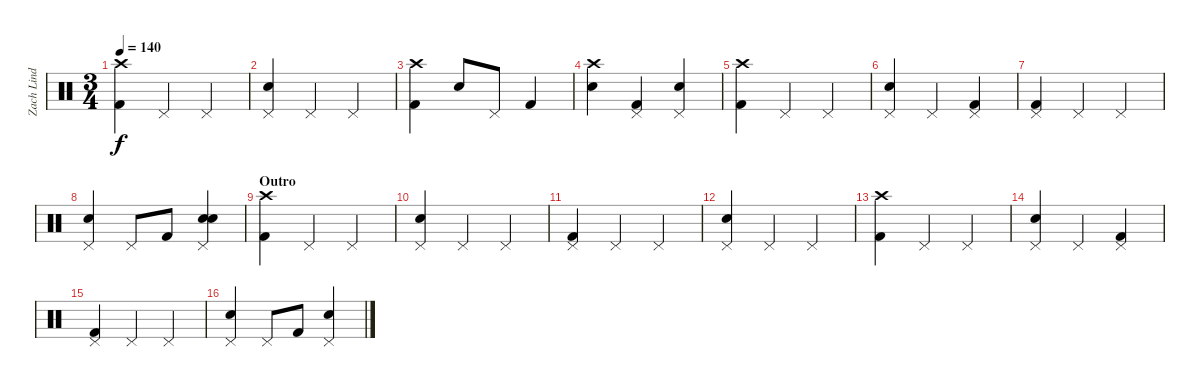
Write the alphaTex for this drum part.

\track ("Zach Lind - Drums" "Zach Lind ") {instrument percussion}
\staff {score}
\articulation defaults
\ts (3 4)
\tempo 140
\clef neutral
\ks c
("Crash high (hit)" "Kick (hit) 2").4{dy f} "Pedal Hi-Hat (hit)".4 "Pedal Hi-Hat (hit)".4 |
("Pedal Hi-Hat (hit)" "Electric Snare (hit)").4 "Pedal Hi-Hat (hit)".4 "Pedal Hi-Hat (hit)".4 |
("Crash high (hit)" "Kick (hit) 2").4 "Electric Snare (hit)".8 "Pedal Hi-Hat (hit)".8 "Kick (hit) 2".4 |
("Crash high (hit)" "Electric Snare (hit)").4 ("Pedal Hi-Hat (hit)" "Kick (hit) 2").4 ("Pedal Hi-Hat (hit)" "Electric Snare (hit)").4 |
("Crash high (hit)" "Kick (hit) 2").4 "Pedal Hi-Hat (hit)".4 "Pedal Hi-Hat (hit)".4 |
("Pedal Hi-Hat (hit)" "Electric Snare (hit)").4 "Pedal Hi-Hat (hit)".4 ("Pedal Hi-Hat (hit)" "Kick (hit) 2").4 |
("Pedal Hi-Hat (hit)" "Kick (hit) 2").4 "Pedal Hi-Hat (hit)".4 "Pedal Hi-Hat (hit)".4 |
("Pedal Hi-Hat (hit)" "Electric Snare (hit)").4 "Pedal Hi-Hat (hit)".8 "Kick (hit) 2".8 ("Pedal Hi-Hat (hit)" "Electric Snare (hit)" "Electric Snare (hit)").4 |
\section ("" "Outro")
("Crash high (hit)" "Kick (hit) 2").4 "Pedal Hi-Hat (hit)".4 "Pedal Hi-Hat (hit)".4 |
("Pedal Hi-Hat (hit)" "Electric Snare (hit)").4 "Pedal Hi-Hat (hit)".4 "Pedal Hi-Hat (hit)".4 |
("Pedal Hi-Hat (hit)" "Kick (hit) 2").4 "Pedal Hi-Hat (hit)".4 "Pedal Hi-Hat (hit)".4 |
("Pedal Hi-Hat (hit)" "Electric Snare (hit)").4 "Pedal Hi-Hat (hit)".4 "Pedal Hi-Hat (hit)".4 |
("Crash high (hit)" "Kick (hit) 2").4 "Pedal Hi-Hat (hit)".4 "Pedal Hi-Hat (hit)".4 |
("Pedal Hi-Hat (hit)" "Electric Snare (hit)").4 "Pedal Hi-Hat (hit)".4 ("Pedal Hi-Hat (hit)" "Kick (hit) 2").4 |
("Pedal Hi-Hat (hit)" "Kick (hit) 2").4 "Pedal Hi-Hat (hit)".4 "Pedal Hi-Hat (hit)".4 |
("Pedal Hi-Hat (hit)" "Electric Snare (hit)").4 "Pedal Hi-Hat (hit)".8 "Kick (hit) 2".8 ("Pedal Hi-Hat (hit)" "Electric Snare (hit)").4
